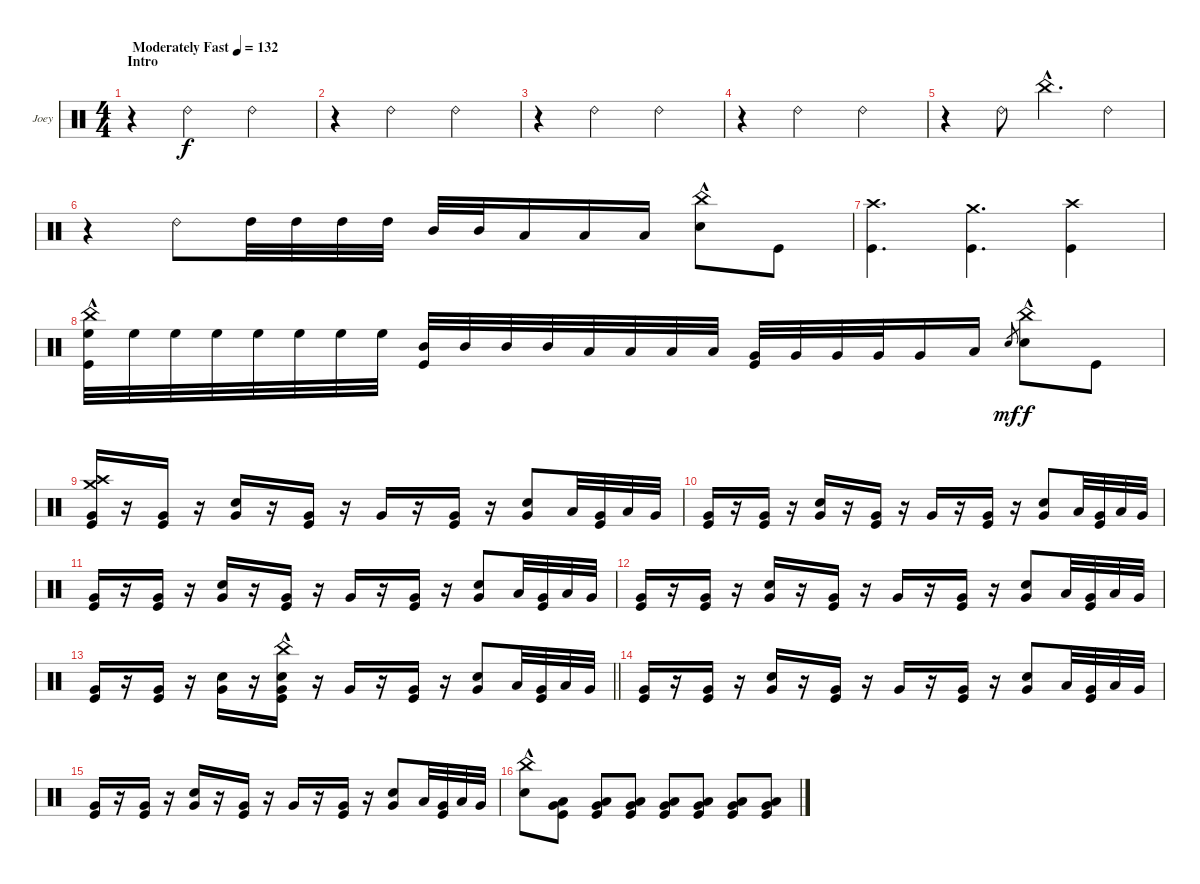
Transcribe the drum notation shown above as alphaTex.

\bracketExtendMode groupsimilarinstruments
\firstSystemTrackNameOrientation horizontal
\otherSystemsTrackNameOrientation horizontal
\track ("Joey Jordison" "Joey") {instrument percussion}
\staff {score}
\articulation defaults
\ts (4 4)
\beaming (8 2 2 2 2)
\section ("" "Intro")
\tempo (132 "Moderately Fast")
\clef neutral
\ks c
r.4{dy f} "Ride (bell) 2".2 "Ride (bell) 2".2 |
r.4 "Ride (bell) 2".2 "Ride (bell) 2".2 |
r.4 "Ride (bell) 2".2 "Ride (bell) 2".2 |
r.4 "Ride (bell) 2".2 "Ride (bell) 2".2 |
r.4 "Ride (bell) 2".8 "China (hit)"{hac}.4{d} "Ride (bell) 2".4 |
r.4 "Ride (bell) 2".8 "High Tom (hit)".32 "High Tom (hit)".32 "High Tom (hit)".32 "High Tom (hit)".32 "Mid Tom (hit)".32 "Mid Tom (hit)".32 "Low Tom (hit)".16 "Low Tom (hit)".16 "Low Tom (hit)".16 ("Snare (hit) 2" "China (hit)"{hac}).8 "Kick (hit)".8 |
("Kick (hit)" "Crash high (hit)").4{d} ("Crash medium (hit)" "Kick (hit)").4{d} ("Kick (hit)" "Crash high (hit)").4 |
("High Floor Tom (hit)" "Kick (hit)" "China (hit)"{hac}).32 "High Floor Tom (hit)".32 "High Floor Tom (hit)".32 "High Floor Tom (hit)".32 "High Floor Tom (hit)".32 "High Floor Tom (hit)".32 "High Floor Tom (hit)".32 "High Floor Tom (hit)".32 ("Mid Tom (hit)" "Kick (hit)").32 "Mid Tom (hit)".32 "Mid Tom (hit)".32 "Mid Tom (hit)".32 "Low Tom (hit)".32 "Low Tom (hit)".32 "Low Tom (hit)".32 "Low Tom (hit)".32 ("Very Low Tom (hit)" "Kick (hit)").32 "Very Low Tom (hit)".32 "Very Low Tom (hit)".32 "Very Low Tom (hit)".32 "Very Low Tom (hit)".16 "Low Tom (hit)".16 "Snare (hit) 2".8{gr dy mf} ("Snare (hit) 2" "China (hit)"{hac}).8{dy f} "Kick (hit)".8 |
("Very Low Tom (hit)" "Kick (hit)" "Crash medium (hit)" "Crash high (hit)").16 r.16 ("Very Low Tom (hit)" "Kick (hit)").16 r.16 ("Very Low Tom (hit)" "Snare (hit) 2").16 r.16 ("Very Low Tom (hit)" "Kick (hit)").16 r.16 "Very Low Tom (hit)".16 r.16 ("Very Low Tom (hit)" "Kick (hit)").16 r.16 ("Very Low Tom (hit)" "Snare (hit) 2").8 "Low Tom (hit)".32 ("Very Low Tom (hit)" "Kick (hit)").32 "Low Tom (hit)".32 "Very Low Tom (hit)".32 |
("Very Low Tom (hit)" "Kick (hit)").16 r.16 ("Very Low Tom (hit)" "Kick (hit)").16 r.16 ("Very Low Tom (hit)" "Snare (hit) 2").16 r.16 ("Very Low Tom (hit)" "Kick (hit)").16 r.16 "Very Low Tom (hit)".16 r.16 ("Very Low Tom (hit)" "Kick (hit)").16 r.16 ("Very Low Tom (hit)" "Snare (hit) 2").8 "Low Tom (hit)".32 ("Very Low Tom (hit)" "Kick (hit)").32 "Low Tom (hit)".32 "Very Low Tom (hit)".32 |
("Very Low Tom (hit)" "Kick (hit)").16 r.16 ("Very Low Tom (hit)" "Kick (hit)").16 r.16 ("Very Low Tom (hit)" "Snare (hit) 2").16 r.16 ("Very Low Tom (hit)" "Kick (hit)").16 r.16 "Very Low Tom (hit)".16 r.16 ("Very Low Tom (hit)" "Kick (hit)").16 r.16 ("Very Low Tom (hit)" "Snare (hit) 2").8 "Low Tom (hit)".32 ("Very Low Tom (hit)" "Kick (hit)").32 "Low Tom (hit)".32 "Very Low Tom (hit)".32 |
("Very Low Tom (hit)" "Kick (hit)").16 r.16 ("Very Low Tom (hit)" "Kick (hit)").16 r.16 ("Very Low Tom (hit)" "Snare (hit) 2").16 r.16 ("Very Low Tom (hit)" "Kick (hit)").16 r.16 "Very Low Tom (hit)".16 r.16 ("Very Low Tom (hit)" "Kick (hit)").16 r.16 ("Very Low Tom (hit)" "Snare (hit) 2").8 "Low Tom (hit)".32 ("Very Low Tom (hit)" "Kick (hit)").32 "Low Tom (hit)".32 "Very Low Tom (hit)".32 |
\barLineRight lightlight
("Very Low Tom (hit)" "Kick (hit)").16 r.16 ("Very Low Tom (hit)" "Kick (hit)").16 r.16 ("Very Low Tom (hit)" "Snare (hit) 2").16 r.16 ("China (hit)"{hac} "Very Low Tom (hit)" "Kick (hit)" "Snare (hit) 2").16 r.16 "Very Low Tom (hit)".16 r.16 ("Very Low Tom (hit)" "Kick (hit)").16 r.16 ("Very Low Tom (hit)" "Snare (hit) 2").8 "Low Tom (hit)".32 ("Very Low Tom (hit)" "Kick (hit)").32 "Low Tom (hit)".32 "Very Low Tom (hit)".32 |
("Very Low Tom (hit)" "Kick (hit)").16 r.16 ("Very Low Tom (hit)" "Kick (hit)").16 r.16 ("Very Low Tom (hit)" "Snare (hit) 2").16 r.16 ("Very Low Tom (hit)" "Kick (hit)").16 r.16 "Very Low Tom (hit)".16 r.16 ("Very Low Tom (hit)" "Kick (hit)").16 r.16 ("Very Low Tom (hit)" "Snare (hit) 2").8 "Low Tom (hit)".32 ("Very Low Tom (hit)" "Kick (hit)").32 "Low Tom (hit)".32 "Very Low Tom (hit)".32 |
("Very Low Tom (hit)" "Kick (hit)").16 r.16 ("Very Low Tom (hit)" "Kick (hit)").16 r.16 ("Very Low Tom (hit)" "Snare (hit) 2").16 r.16 ("Very Low Tom (hit)" "Kick (hit)").16 r.16 "Very Low Tom (hit)".16 r.16 ("Very Low Tom (hit)" "Kick (hit)").16 r.16 ("Very Low Tom (hit)" "Snare (hit) 2").8 "Low Tom (hit)".32 ("Very Low Tom (hit)" "Kick (hit)").32 "Low Tom (hit)".32 "Very Low Tom (hit)".32 |
("China (hit)"{hac} "Snare (hit) 2").8 ("Very Low Tom (hit)" "Kick (hit)" "Low Tom (hit)").8 ("Very Low Tom (hit)" "Kick (hit)" "Low Tom (hit)").8 ("Very Low Tom (hit)" "Kick (hit)" "Low Tom (hit)").8 ("Very Low Tom (hit)" "Kick (hit)" "Low Tom (hit)").8 ("Very Low Tom (hit)" "Kick (hit)" "Low Tom (hit)").8 ("Very Low Tom (hit)" "Kick (hit)" "Low Tom (hit)").8 ("Very Low Tom (hit)" "Kick (hit)" "Low Tom (hit)").8
